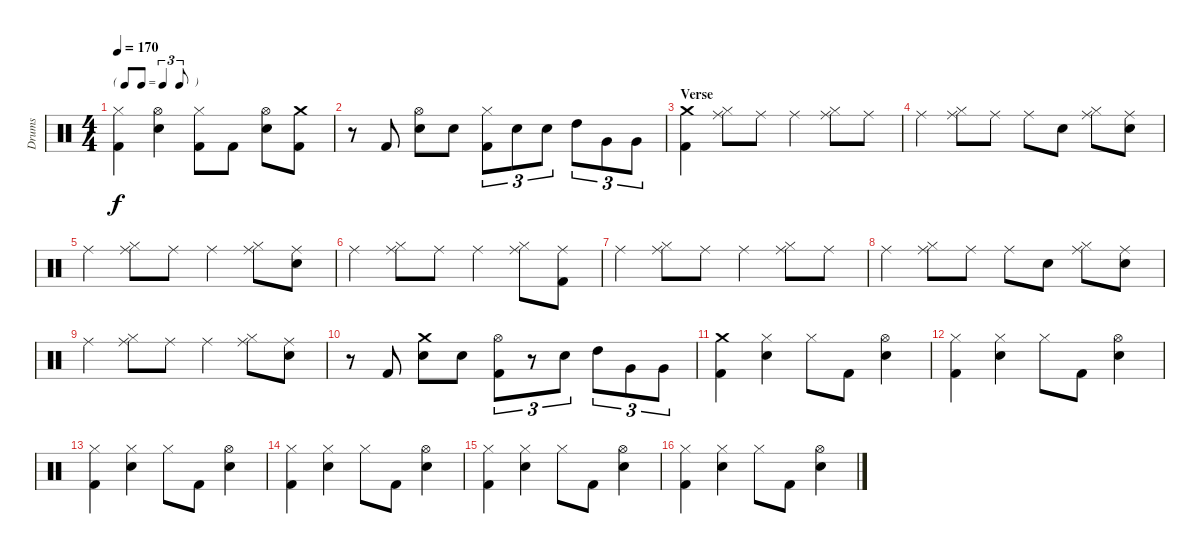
\track ("Drums" "Drums") {instrument percussion}
\staff {score}
\articulation defaults
\ts (4 4)
\tf triplet8th
\tempo 170
\clef neutral
\ks c
("Hi-Hat (closed)" "Kick (hit) 2").4{dy f} ("Hi-Hat (open)" "Snare (hit) 2").4 ("Hi-Hat (closed)" "Kick (hit) 2").8 "Kick (hit) 2".8 ("Hi-Hat (open)" "Snare (hit) 2").8 ("Crash medium (hit)" "Kick (hit) 2").8 |
r.8 "Kick (hit) 2".8 ("Hi-Hat (open)" "Snare (hit) 2").8 "Snare (hit) 2".8 ("Hi-Hat (closed)" "Kick (hit) 2").8{tu (3 2)} "Snare (hit) 2".8{tu (3 2)} "Snare (hit) 2".8{tu (3 2)} "High Tom (hit)".8{tu (3 2)} "Very Low Tom (hit)".8{tu (3 2)} "Very Low Tom (hit)".8{tu (3 2)} |
\section ("" "Verse")
("Crash medium (hit)" "Kick (hit) 2").4 ("Ride (middle)" "Hi-Hat (closed)").8 "Ride (middle)".8 "Ride (middle)".4 ("Ride (middle)" "Hi-Hat (closed)").8 "Ride (middle)".8 |
"Ride (middle)".4 ("Ride (middle)" "Hi-Hat (closed)").8 "Ride (middle)".8 "Ride (middle)".8 "Snare (hit) 2".8 ("Ride (middle)" "Hi-Hat (closed)").8 ("Ride (middle)" "Snare (hit) 2").8 |
"Ride (middle)".4 ("Ride (middle)" "Hi-Hat (closed)").8 "Ride (middle)".8 "Ride (middle)".4 ("Ride (middle)" "Hi-Hat (closed)").8 ("Ride (middle)" "Snare (hit) 2").8 |
"Ride (middle)".4 ("Ride (middle)" "Hi-Hat (closed)").8 "Ride (middle)".8 "Ride (middle)".4 ("Ride (middle)" "Hi-Hat (closed)").8 ("Ride (middle)" "Kick (hit) 2").8 |
"Ride (middle)".4 ("Ride (middle)" "Hi-Hat (closed)").8 "Ride (middle)".8 "Ride (middle)".4 ("Ride (middle)" "Hi-Hat (closed)").8 "Ride (middle)".8 |
"Ride (middle)".4 ("Ride (middle)" "Hi-Hat (closed)").8 "Ride (middle)".8 "Ride (middle)".8 "Snare (hit) 2".8 ("Ride (middle)" "Hi-Hat (closed)").8 ("Ride (middle)" "Snare (hit) 2").8 |
"Ride (middle)".4 ("Ride (middle)" "Hi-Hat (closed)").8 "Ride (middle)".8 "Ride (middle)".4 ("Ride (middle)" "Hi-Hat (closed)").8 ("Ride (middle)" "Snare (hit) 2").8 |
r.8 "Kick (hit) 2".8 ("Crash medium (hit)" "Snare (hit) 2").8 "Snare (hit) 2".8 ("Hi-Hat (open)" "Kick (hit) 2").8{tu (3 2)} r.8{tu (3 2)} "Snare (hit) 2".8{tu (3 2)} "High Tom (hit)".8{tu (3 2)} "Very Low Tom (hit)".8{tu (3 2)} "Very Low Tom (hit)".8{tu (3 2)} |
("Crash medium (hit)" "Kick (hit) 2").4 ("Hi-Hat (closed)" "Snare (hit) 2").4 "Hi-Hat (closed)".8 "Kick (hit) 2".8 ("Hi-Hat (open)" "Snare (hit) 2").4 |
("Hi-Hat (closed)" "Kick (hit) 2").4 ("Hi-Hat (closed)" "Snare (hit) 2").4 "Hi-Hat (closed)".8 "Kick (hit) 2".8 ("Hi-Hat (open)" "Snare (hit) 2").4 |
("Hi-Hat (closed)" "Kick (hit) 2").4 ("Hi-Hat (closed)" "Snare (hit) 2").4 "Hi-Hat (closed)".8 "Kick (hit) 2".8 ("Hi-Hat (open)" "Snare (hit) 2").4 |
("Hi-Hat (closed)" "Kick (hit) 2").4 ("Hi-Hat (closed)" "Snare (hit) 2").4 "Hi-Hat (closed)".8 "Kick (hit) 2".8 ("Hi-Hat (open)" "Snare (hit) 2").4 |
("Hi-Hat (closed)" "Kick (hit) 2").4 ("Hi-Hat (closed)" "Snare (hit) 2").4 "Hi-Hat (closed)".8 "Kick (hit) 2".8 ("Hi-Hat (open)" "Snare (hit) 2").4 |
("Hi-Hat (closed)" "Kick (hit) 2").4 ("Hi-Hat (closed)" "Snare (hit) 2").4 "Hi-Hat (closed)".8 "Kick (hit) 2".8 ("Hi-Hat (open)" "Snare (hit) 2").4
